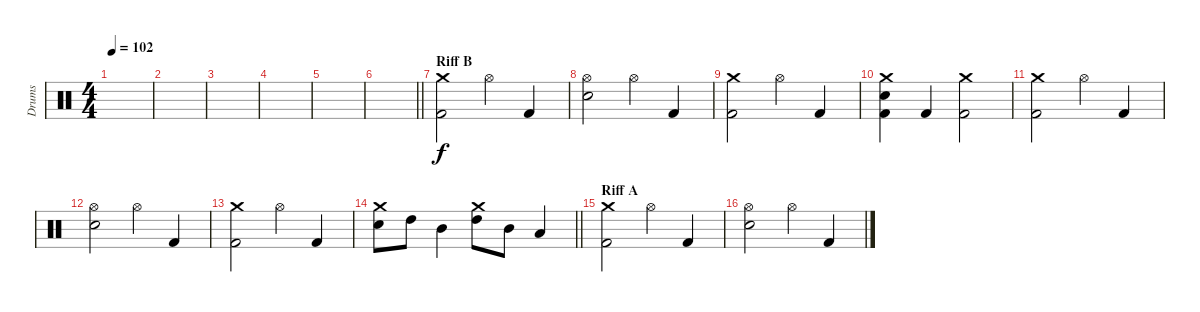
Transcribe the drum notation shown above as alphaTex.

\track ("Drums" "Drums") {instrument percussion}
\staff {score}
\articulation defaults
\ts (4 4)
\tempo 102
\clef neutral
\ks c
|
|
|
|
|
\barLineRight lightlight
|
\section ("" "Riff B")
("Crash medium (hit)" "Kick (hit) 2").2{volume 9} "Hi-Hat (open)".4 "Kick (hit) 2".4 |
("Hi-Hat (open)" "Electric Snare (hit)").2 "Hi-Hat (open)".4 "Kick (hit) 2".4 |
("Crash medium (hit)" "Kick (hit) 2").2 "Hi-Hat (open)".4 "Kick (hit) 2".4 |
("Crash medium (hit)" "Electric Snare (hit)" "Kick (hit) 2").4 "Kick (hit) 2".4 ("Crash medium (hit)" "Kick (hit) 2").2 |
("Crash medium (hit)" "Kick (hit) 2").2 "Hi-Hat (open)".4 "Kick (hit) 2".4 |
("Hi-Hat (open)" "Electric Snare (hit)").2 "Hi-Hat (open)".4 "Kick (hit) 2".4 |
("Crash medium (hit)" "Kick (hit) 2").2 "Hi-Hat (open)".4 "Kick (hit) 2".4 |
\barLineRight lightlight
("Crash medium (hit)" "Electric Snare (hit)").8 "High Tom (hit)".8 "Mid Tom (hit)".4 ("Crash medium (hit)" "High Tom (hit)").8 "Mid Tom (hit)".8 "Low Tom (hit)".4 |
\section ("" "Riff A")
("Crash medium (hit)" "Kick (hit) 2").2 "Hi-Hat (open)".4 "Kick (hit) 2".4 |
("Hi-Hat (open)" "Electric Snare (hit)").2 "Hi-Hat (open)".4 "Kick (hit) 2".4
